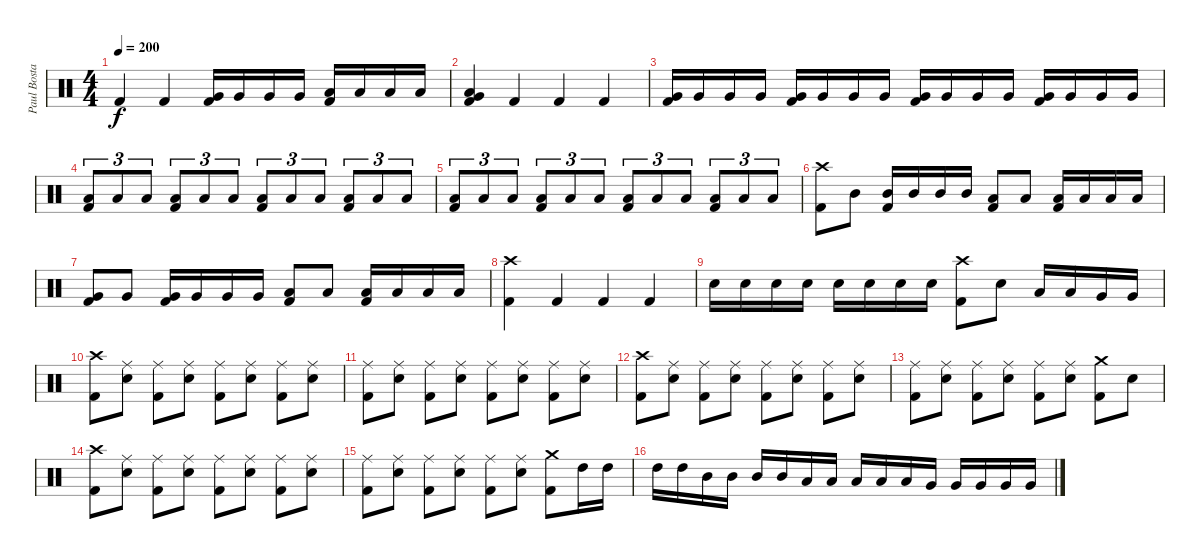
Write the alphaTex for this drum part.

\track ("Paul Bostaph" "Paul Bosta") {instrument percussion}
\staff {score}
\articulation defaults
\ts (4 4)
\tempo 200
\clef neutral
\ks c "Kick (hit) 2".4{dy f} "Kick (hit) 2".4
("Very Low Tom (hit)" "Kick (hit) 2").16 "Very Low Tom (hit)".16 "Very Low Tom (hit)".16 "Very Low Tom (hit)".16 ("Low Floor Tom (hit)" "Kick (hit) 2").16 "Low Floor Tom (hit)".16 "Low Floor Tom (hit)".16 "Low Floor Tom (hit)".16 |
("Low Floor Tom (hit)" "Very Low Tom (hit)" "Kick (hit) 2").4 "Kick (hit) 2".4 "Kick (hit) 2".4 "Kick (hit) 2".4 |
("Very Low Tom (hit)" "Kick (hit) 2").16 "Very Low Tom (hit)".16 "Very Low Tom (hit)".16 "Very Low Tom (hit)".16 ("Very Low Tom (hit)" "Kick (hit) 2").16 "Very Low Tom (hit)".16 "Very Low Tom (hit)".16 "Very Low Tom (hit)".16 ("Very Low Tom (hit)" "Kick (hit) 2").16 "Very Low Tom (hit)".16 "Very Low Tom (hit)".16 "Very Low Tom (hit)".16 ("Very Low Tom (hit)" "Kick (hit) 2").16 "Very Low Tom (hit)".16 "Very Low Tom (hit)".16 "Very Low Tom (hit)".16 |
("Low Floor Tom (hit)" "Kick (hit) 2").8{tu (3 2)} "Low Floor Tom (hit)".8{tu (3 2)} "Low Floor Tom (hit)".8{tu (3 2)} ("Low Floor Tom (hit)" "Kick (hit) 2").8{tu (3 2)} "Low Floor Tom (hit)".8{tu (3 2)} "Low Floor Tom (hit)".8{tu (3 2)} ("Low Floor Tom (hit)" "Kick (hit) 2").8{tu (3 2)} "Low Floor Tom (hit)".8{tu (3 2)} "Low Floor Tom (hit)".8{tu (3 2)} ("Low Floor Tom (hit)" "Kick (hit) 2").8{tu (3 2)} "Low Floor Tom (hit)".8{tu (3 2)} "Low Floor Tom (hit)".8{tu (3 2)} |
("Low Floor Tom (hit)" "Kick (hit) 2").8{tu (3 2)} "Low Floor Tom (hit)".8{tu (3 2)} "Low Floor Tom (hit)".8{tu (3 2)} ("Low Floor Tom (hit)" "Kick (hit) 2").8{tu (3 2)} "Low Floor Tom (hit)".8{tu (3 2)} "Low Floor Tom (hit)".8{tu (3 2)} ("Low Floor Tom (hit)" "Kick (hit) 2").8{tu (3 2)} "Low Floor Tom (hit)".8{tu (3 2)} "Low Floor Tom (hit)".8{tu (3 2)} ("Low Floor Tom (hit)" "Kick (hit) 2").8{tu (3 2)} "Low Floor Tom (hit)".8{tu (3 2)} "Low Floor Tom (hit)".8{tu (3 2)} |
("Crash high (hit)" "Kick (hit) 2").8 "Mid Tom (hit)".8 ("Kick (hit) 2" "Mid Tom (hit)").16 "Mid Tom (hit)".16 "Mid Tom (hit)".16 "Mid Tom (hit)".16 ("Kick (hit) 2" "Low Tom (hit)").8 "Low Tom (hit)".8 ("Kick (hit) 2" "Low Tom (hit)").16 "Low Tom (hit)".16 "Low Tom (hit)".16 "Low Tom (hit)".16 |
("Kick (hit) 2" "Very Low Tom (hit)").8 "Very Low Tom (hit)".8 ("Kick (hit) 2" "Very Low Tom (hit)").16 "Very Low Tom (hit)".16 "Very Low Tom (hit)".16 "Very Low Tom (hit)".16 ("Kick (hit) 2" "Low Floor Tom (hit)").8 "Low Floor Tom (hit)".8 ("Kick (hit) 2" "Low Floor Tom (hit)").16 "Low Floor Tom (hit)".16 "Low Floor Tom (hit)".16 "Low Floor Tom (hit)".16 |
("Kick (hit) 2" "Crash high (hit)").4 "Kick (hit) 2".4 "Kick (hit) 2".4 "Kick (hit) 2".4 |
"Electric Snare (hit)".16 "Electric Snare (hit)".16 "Electric Snare (hit)".16 "Electric Snare (hit)".16 "Electric Snare (hit)".16 "Electric Snare (hit)".16 "Electric Snare (hit)".16 "Electric Snare (hit)".16 ("Crash high (hit)" "Kick (hit) 2").8 "Electric Snare (hit)".8 "Low Tom (hit)".16 "Low Tom (hit)".16 "Very Low Tom (hit)".16 "Very Low Tom (hit)".16 |
("Crash high (hit)" "Kick (hit) 2").8 ("Ride (middle)" "Electric Snare (hit)").8 ("Ride (middle)" "Kick (hit) 2").8 ("Ride (middle)" "Electric Snare (hit)").8 ("Ride (middle)" "Kick (hit) 2").8 ("Ride (middle)" "Electric Snare (hit)").8 ("Ride (middle)" "Kick (hit) 2").8 ("Ride (middle)" "Electric Snare (hit)").8 |
("Ride (middle)" "Kick (hit) 2").8 ("Ride (middle)" "Electric Snare (hit)").8 ("Ride (middle)" "Kick (hit) 2").8 ("Ride (middle)" "Electric Snare (hit)").8 ("Ride (middle)" "Kick (hit) 2").8 ("Ride (middle)" "Electric Snare (hit)").8 ("Ride (middle)" "Kick (hit) 2").8 ("Ride (middle)" "Electric Snare (hit)").8 |
("Crash high (hit)" "Kick (hit) 2").8 ("Ride (middle)" "Electric Snare (hit)").8 ("Ride (middle)" "Kick (hit) 2").8 ("Ride (middle)" "Electric Snare (hit)").8 ("Ride (middle)" "Kick (hit) 2").8 ("Ride (middle)" "Electric Snare (hit)").8 ("Ride (middle)" "Kick (hit) 2").8 ("Ride (middle)" "Electric Snare (hit)").8 |
("Ride (middle)" "Kick (hit) 2").8 ("Ride (middle)" "Electric Snare (hit)").8 ("Ride (middle)" "Kick (hit) 2").8 ("Ride (middle)" "Electric Snare (hit)").8 ("Ride (middle)" "Kick (hit) 2").8 ("Ride (middle)" "Electric Snare (hit)").8 ("Crash medium (hit)" "Kick (hit) 2").8 "Electric Snare (hit)".8 |
("Crash high (hit)" "Kick (hit) 2").8 ("Ride (middle)" "Electric Snare (hit)").8 ("Ride (middle)" "Kick (hit) 2").8 ("Ride (middle)" "Electric Snare (hit)").8 ("Ride (middle)" "Kick (hit) 2").8 ("Ride (middle)" "Electric Snare (hit)").8 ("Ride (middle)" "Kick (hit) 2").8 ("Ride (middle)" "Electric Snare (hit)").8 |
("Ride (middle)" "Kick (hit) 2").8 ("Ride (middle)" "Electric Snare (hit)").8 ("Ride (middle)" "Kick (hit) 2").8 ("Ride (middle)" "Electric Snare (hit)").8 ("Ride (middle)" "Kick (hit) 2").8 ("Ride (middle)" "Electric Snare (hit)").8 ("Crash medium (hit)" "Kick (hit) 2").8 "High Tom (hit)".16 "High Tom (hit)".16 |
"High Tom (hit)".16 "High Tom (hit)".16 "Mid Tom (hit)".16 "Mid Tom (hit)".16 "Mid Tom (hit)".16 "Mid Tom (hit)".16 "Low Tom (hit)".16 "Low Tom (hit)".16 "Low Tom (hit)".16 "Low Tom (hit)".16 "Low Tom (hit)".16 "Very Low Tom (hit)".16 "Very Low Tom (hit)".16 "Very Low Tom (hit)".16 "Very Low Tom (hit)".16 "Very Low Tom (hit)".16
